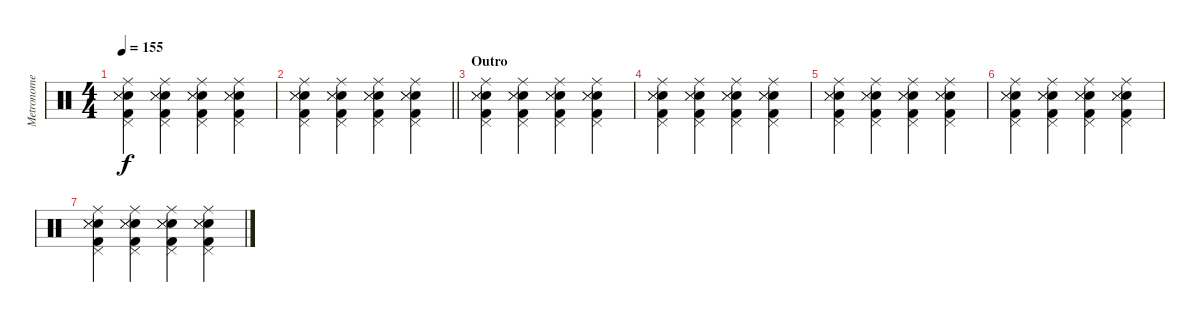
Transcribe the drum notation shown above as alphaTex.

\track ("Metronome" "Metronome") {mute instrument percussion}
\staff {score}
\articulation defaults
\ts (4 4)
\tempo 155
\clef neutral
\ks c
("Ride (middle)" "Pedal Hi-Hat (hit)" "Electric Snare (hit)" "Snare (side stick) 3" "Metronome (hit)" "Kick (hit) 2").4{dy f} ("Ride (middle)" "Pedal Hi-Hat (hit)" "Electric Snare (hit)" "Snare (side stick) 3" "Metronome (hit)" "Kick (hit) 2").4 ("Ride (middle)" "Pedal Hi-Hat (hit)" "Electric Snare (hit)" "Snare (side stick) 3" "Metronome (hit)" "Kick (hit) 2").4 ("Ride (middle)" "Pedal Hi-Hat (hit)" "Electric Snare (hit)" "Snare (side stick) 3" "Metronome (hit)" "Kick (hit) 2").4 |
\barLineRight lightlight
("Ride (middle)" "Pedal Hi-Hat (hit)" "Electric Snare (hit)" "Snare (side stick) 3" "Metronome (hit)" "Kick (hit) 2").4 ("Ride (middle)" "Pedal Hi-Hat (hit)" "Electric Snare (hit)" "Snare (side stick) 3" "Metronome (hit)" "Kick (hit) 2").4 ("Ride (middle)" "Pedal Hi-Hat (hit)" "Electric Snare (hit)" "Snare (side stick) 3" "Metronome (hit)" "Kick (hit) 2").4 ("Ride (middle)" "Pedal Hi-Hat (hit)" "Electric Snare (hit)" "Snare (side stick) 3" "Metronome (hit)" "Kick (hit) 2").4 |
\section ("" "Outro")
("Ride (middle)" "Pedal Hi-Hat (hit)" "Electric Snare (hit)" "Snare (side stick) 3" "Metronome (hit)" "Kick (hit) 2").4 ("Ride (middle)" "Pedal Hi-Hat (hit)" "Electric Snare (hit)" "Snare (side stick) 3" "Metronome (hit)" "Kick (hit) 2").4 ("Ride (middle)" "Pedal Hi-Hat (hit)" "Electric Snare (hit)" "Snare (side stick) 3" "Metronome (hit)" "Kick (hit) 2").4 ("Ride (middle)" "Pedal Hi-Hat (hit)" "Electric Snare (hit)" "Snare (side stick) 3" "Metronome (hit)" "Kick (hit) 2").4 |
("Ride (middle)" "Pedal Hi-Hat (hit)" "Electric Snare (hit)" "Snare (side stick) 3" "Metronome (hit)" "Kick (hit) 2").4 ("Ride (middle)" "Pedal Hi-Hat (hit)" "Electric Snare (hit)" "Snare (side stick) 3" "Metronome (hit)" "Kick (hit) 2").4 ("Ride (middle)" "Pedal Hi-Hat (hit)" "Electric Snare (hit)" "Snare (side stick) 3" "Metronome (hit)" "Kick (hit) 2").4 ("Ride (middle)" "Pedal Hi-Hat (hit)" "Electric Snare (hit)" "Snare (side stick) 3" "Metronome (hit)" "Kick (hit) 2").4 |
("Ride (middle)" "Pedal Hi-Hat (hit)" "Electric Snare (hit)" "Snare (side stick) 3" "Metronome (hit)" "Kick (hit) 2").4 ("Ride (middle)" "Pedal Hi-Hat (hit)" "Electric Snare (hit)" "Snare (side stick) 3" "Metronome (hit)" "Kick (hit) 2").4 ("Ride (middle)" "Pedal Hi-Hat (hit)" "Electric Snare (hit)" "Snare (side stick) 3" "Metronome (hit)" "Kick (hit) 2").4 ("Ride (middle)" "Pedal Hi-Hat (hit)" "Electric Snare (hit)" "Snare (side stick) 3" "Metronome (hit)" "Kick (hit) 2").4 |
("Ride (middle)" "Pedal Hi-Hat (hit)" "Electric Snare (hit)" "Snare (side stick) 3" "Metronome (hit)" "Kick (hit) 2").4 ("Ride (middle)" "Pedal Hi-Hat (hit)" "Electric Snare (hit)" "Snare (side stick) 3" "Metronome (hit)" "Kick (hit) 2").4 ("Ride (middle)" "Pedal Hi-Hat (hit)" "Electric Snare (hit)" "Snare (side stick) 3" "Metronome (hit)" "Kick (hit) 2").4 ("Ride (middle)" "Pedal Hi-Hat (hit)" "Electric Snare (hit)" "Snare (side stick) 3" "Metronome (hit)" "Kick (hit) 2").4 |
("Ride (middle)" "Pedal Hi-Hat (hit)" "Electric Snare (hit)" "Snare (side stick) 3" "Metronome (hit)" "Kick (hit) 2").4 ("Ride (middle)" "Pedal Hi-Hat (hit)" "Electric Snare (hit)" "Snare (side stick) 3" "Metronome (hit)" "Kick (hit) 2").4 ("Ride (middle)" "Pedal Hi-Hat (hit)" "Electric Snare (hit)" "Snare (side stick) 3" "Metronome (hit)" "Kick (hit) 2").4 ("Ride (middle)" "Pedal Hi-Hat (hit)" "Electric Snare (hit)" "Snare (side stick) 3" "Metronome (hit)" "Kick (hit) 2").4
